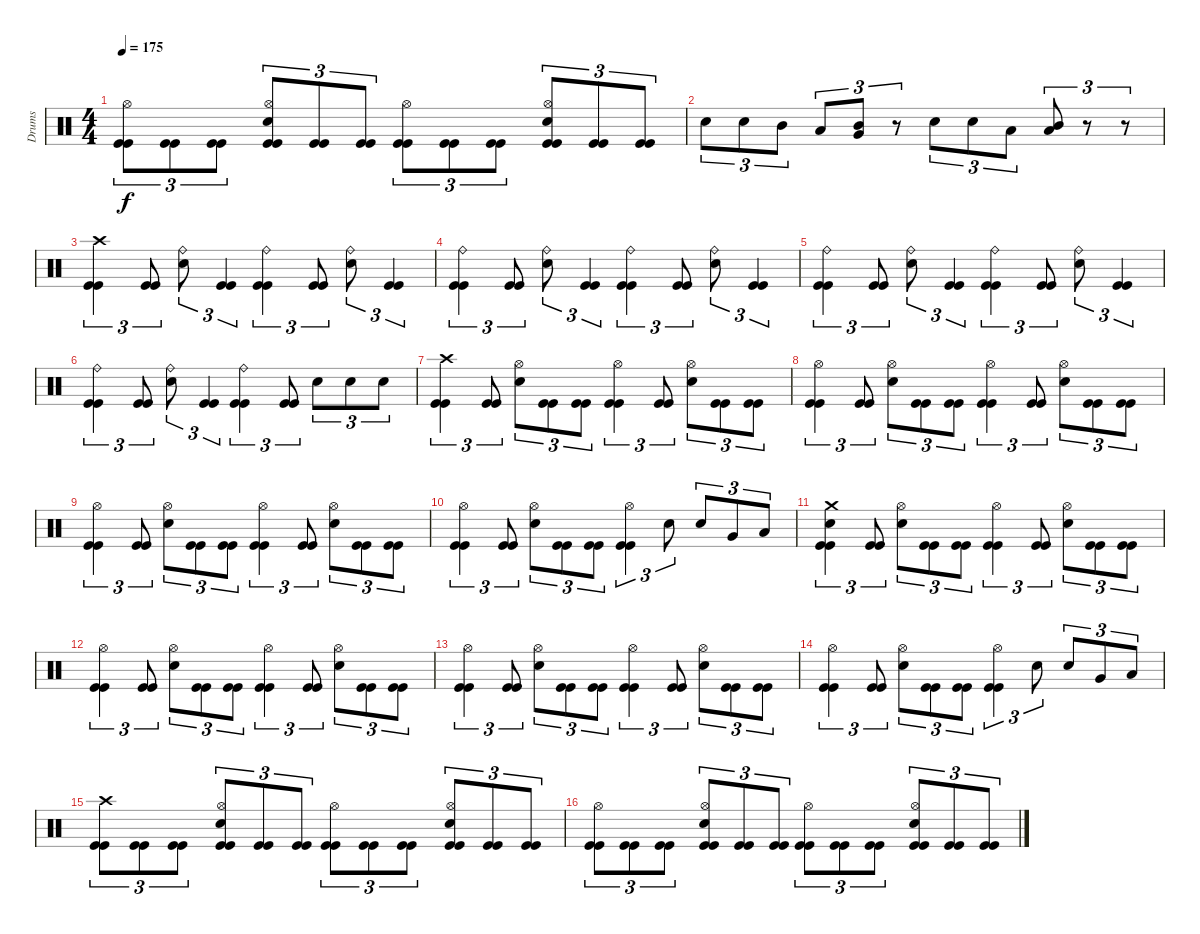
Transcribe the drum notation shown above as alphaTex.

\track ("Drums" "Drums") {instrument percussion}
\staff {score}
\articulation defaults
\ts (4 4)
\tempo 175
\clef neutral
\ks c
("Kick (hit)" "Kick (hit)" "Hi-Hat (open)").8{tu (3 2) dy f} ("Kick (hit)" "Kick (hit)").8{tu (3 2)} ("Kick (hit)" "Kick (hit)").8{tu (3 2)} ("Kick (hit)" "Kick (hit)" "Snare (hit) 2" "Hi-Hat (open)").8{tu (3 2)} ("Kick (hit)" "Kick (hit)").8{tu (3 2)} ("Kick (hit)" "Kick (hit)").8{tu (3 2)} ("Kick (hit)" "Kick (hit)" "Hi-Hat (open)").8{tu (3 2)} ("Kick (hit)" "Kick (hit)").8{tu (3 2)} ("Kick (hit)" "Kick (hit)").8{tu (3 2)} ("Kick (hit)" "Kick (hit)" "Snare (hit) 2" "Hi-Hat (open)").8{tu (3 2)} ("Kick (hit)" "Kick (hit)").8{tu (3 2)} ("Kick (hit)" "Kick (hit)").8{tu (3 2)} |
"Snare (hit) 2".8{tu (3 2)} "Snare (hit) 2".8{tu (3 2)} "Mid Tom (hit)".8{tu (3 2)} "Low Tom (hit)".8{tu (3 2)} ("Very Low Tom (hit)" "Mid Tom (hit)").8{tu (3 2)} r.8{tu (3 2)} "Snare (hit) 2".8{tu (3 2)} "Snare (hit) 2".8{tu (3 2)} "Low Tom (hit)".8{tu (3 2)} ("Low Floor Tom (hit)" "Mid Tom (hit)").8{tu (3 2)} r.8{tu (3 2)} r.8{tu (3 2)} |
("Kick (hit)" "Kick (hit)" "Crash high (hit)").4{tu (3 2)} ("Kick (hit)" "Kick (hit)").8{tu (3 2)} ("Snare (hit) 2" "Ride (bell)").8{tu (3 2)} ("Kick (hit)" "Kick (hit)").4{tu (3 2)} ("Kick (hit)" "Kick (hit)" "Ride (bell)").4{tu (3 2)} ("Kick (hit)" "Kick (hit)").8{tu (3 2)} ("Snare (hit) 2" "Ride (bell)").8{tu (3 2)} ("Kick (hit)" "Kick (hit)").4{tu (3 2)} |
("Kick (hit)" "Kick (hit)" "Ride (bell)").4{tu (3 2)} ("Kick (hit)" "Kick (hit)").8{tu (3 2)} ("Snare (hit) 2" "Ride (bell)").8{tu (3 2)} ("Kick (hit)" "Kick (hit)").4{tu (3 2)} ("Kick (hit)" "Kick (hit)" "Ride (bell)").4{tu (3 2)} ("Kick (hit)" "Kick (hit)").8{tu (3 2)} ("Snare (hit) 2" "Ride (bell)").8{tu (3 2)} ("Kick (hit)" "Kick (hit)").4{tu (3 2)} |
("Kick (hit)" "Kick (hit)" "Ride (bell)").4{tu (3 2)} ("Kick (hit)" "Kick (hit)").8{tu (3 2)} ("Snare (hit) 2" "Ride (bell)").8{tu (3 2)} ("Kick (hit)" "Kick (hit)").4{tu (3 2)} ("Kick (hit)" "Kick (hit)" "Ride (bell)").4{tu (3 2)} ("Kick (hit)" "Kick (hit)").8{tu (3 2)} ("Snare (hit) 2" "Ride (bell)").8{tu (3 2)} ("Kick (hit)" "Kick (hit)").4{tu (3 2)} |
("Kick (hit)" "Kick (hit)" "Ride (bell)").4{tu (3 2)} ("Kick (hit)" "Kick (hit)").8{tu (3 2)} ("Snare (hit) 2" "Ride (bell)").8{tu (3 2)} ("Kick (hit)" "Kick (hit)").4{tu (3 2)} ("Kick (hit)" "Kick (hit)" "Ride (bell)").4{tu (3 2)} ("Kick (hit)" "Kick (hit)").8{tu (3 2)} "Snare (hit) 2".8{tu (3 2)} "Snare (hit) 2".8{tu (3 2)} "Snare (hit) 2".8{tu (3 2)} |
("Kick (hit)" "Kick (hit)" "Crash high (hit)").4{tu (3 2)} ("Kick (hit)" "Kick (hit)").8{tu (3 2)} ("Snare (hit) 2" "Hi-Hat (open)").8{tu (3 2)} ("Kick (hit)" "Kick (hit)").8{tu (3 2)} ("Kick (hit)" "Kick (hit)").8{tu (3 2)} ("Kick (hit)" "Kick (hit)" "Hi-Hat (open)").4{tu (3 2)} ("Kick (hit)" "Kick (hit)").8{tu (3 2)} ("Snare (hit) 2" "Hi-Hat (open)").8{tu (3 2)} ("Kick (hit)" "Kick (hit)").8{tu (3 2)} ("Kick (hit)" "Kick (hit)").8{tu (3 2)} |
("Kick (hit)" "Kick (hit)" "Hi-Hat (open)").4{tu (3 2)} ("Kick (hit)" "Kick (hit)").8{tu (3 2)} ("Snare (hit) 2" "Hi-Hat (open)").8{tu (3 2)} ("Kick (hit)" "Kick (hit)").8{tu (3 2)} ("Kick (hit)" "Kick (hit)").8{tu (3 2)} ("Kick (hit)" "Kick (hit)" "Hi-Hat (open)").4{tu (3 2)} ("Kick (hit)" "Kick (hit)").8{tu (3 2)} ("Snare (hit) 2" "Hi-Hat (open)").8{tu (3 2)} ("Kick (hit)" "Kick (hit)").8{tu (3 2)} ("Kick (hit)" "Kick (hit)").8{tu (3 2)} |
("Kick (hit)" "Kick (hit)" "Hi-Hat (open)").4{tu (3 2)} ("Kick (hit)" "Kick (hit)").8{tu (3 2)} ("Snare (hit) 2" "Hi-Hat (open)").8{tu (3 2)} ("Kick (hit)" "Kick (hit)").8{tu (3 2)} ("Kick (hit)" "Kick (hit)").8{tu (3 2)} ("Kick (hit)" "Kick (hit)" "Hi-Hat (open)").4{tu (3 2)} ("Kick (hit)" "Kick (hit)").8{tu (3 2)} ("Snare (hit) 2" "Hi-Hat (open)").8{tu (3 2)} ("Kick (hit)" "Kick (hit)").8{tu (3 2)} ("Kick (hit)" "Kick (hit)").8{tu (3 2)} |
("Kick (hit)" "Kick (hit)" "Hi-Hat (open)").4{tu (3 2)} ("Kick (hit)" "Kick (hit)").8{tu (3 2)} ("Snare (hit) 2" "Hi-Hat (open)").8{tu (3 2)} ("Kick (hit)" "Kick (hit)").8{tu (3 2)} ("Kick (hit)" "Kick (hit)").8{tu (3 2)} ("Kick (hit)" "Kick (hit)" "Hi-Hat (open)").4{tu (3 2)} "Snare (hit) 2".8{tu (3 2)} "Snare (hit) 2".8{tu (3 2)} "Very Low Tom (hit)".8{tu (3 2)} "Low Floor Tom (hit)".8{tu (3 2)} |
("Kick (hit)" "Kick (hit)" "Crash medium (hit)" "Snare (hit) 2").4{tu (3 2)} ("Kick (hit)" "Kick (hit)").8{tu (3 2)} ("Snare (hit) 2" "Hi-Hat (open)").8{tu (3 2)} ("Kick (hit)" "Kick (hit)").8{tu (3 2)} ("Kick (hit)" "Kick (hit)").8{tu (3 2)} ("Kick (hit)" "Kick (hit)" "Hi-Hat (open)").4{tu (3 2)} ("Kick (hit)" "Kick (hit)").8{tu (3 2)} ("Snare (hit) 2" "Hi-Hat (open)").8{tu (3 2)} ("Kick (hit)" "Kick (hit)").8{tu (3 2)} ("Kick (hit)" "Kick (hit)").8{tu (3 2)} |
("Kick (hit)" "Kick (hit)" "Hi-Hat (open)").4{tu (3 2)} ("Kick (hit)" "Kick (hit)").8{tu (3 2)} ("Snare (hit) 2" "Hi-Hat (open)").8{tu (3 2)} ("Kick (hit)" "Kick (hit)").8{tu (3 2)} ("Kick (hit)" "Kick (hit)").8{tu (3 2)} ("Kick (hit)" "Kick (hit)" "Hi-Hat (open)").4{tu (3 2)} ("Kick (hit)" "Kick (hit)").8{tu (3 2)} ("Snare (hit) 2" "Hi-Hat (open)").8{tu (3 2)} ("Kick (hit)" "Kick (hit)").8{tu (3 2)} ("Kick (hit)" "Kick (hit)").8{tu (3 2)} |
("Kick (hit)" "Kick (hit)" "Hi-Hat (open)").4{tu (3 2)} ("Kick (hit)" "Kick (hit)").8{tu (3 2)} ("Snare (hit) 2" "Hi-Hat (open)").8{tu (3 2)} ("Kick (hit)" "Kick (hit)").8{tu (3 2)} ("Kick (hit)" "Kick (hit)").8{tu (3 2)} ("Kick (hit)" "Kick (hit)" "Hi-Hat (open)").4{tu (3 2)} ("Kick (hit)" "Kick (hit)").8{tu (3 2)} ("Snare (hit) 2" "Hi-Hat (open)").8{tu (3 2)} ("Kick (hit)" "Kick (hit)").8{tu (3 2)} ("Kick (hit)" "Kick (hit)").8{tu (3 2)} |
("Kick (hit)" "Kick (hit)" "Hi-Hat (open)").4{tu (3 2)} ("Kick (hit)" "Kick (hit)").8{tu (3 2)} ("Snare (hit) 2" "Hi-Hat (open)").8{tu (3 2)} ("Kick (hit)" "Kick (hit)").8{tu (3 2)} ("Kick (hit)" "Kick (hit)").8{tu (3 2)} ("Kick (hit)" "Kick (hit)" "Hi-Hat (open)").4{tu (3 2)} "Snare (hit) 2".8{tu (3 2)} "Snare (hit) 2".8{tu (3 2)} "Very Low Tom (hit)".8{tu (3 2)} "Low Floor Tom (hit)".8{tu (3 2)} |
("Kick (hit)" "Kick (hit)" "Crash high (hit)").8{tu (3 2)} ("Kick (hit)" "Kick (hit)").8{tu (3 2)} ("Kick (hit)" "Kick (hit)").8{tu (3 2)} ("Kick (hit)" "Kick (hit)" "Snare (hit) 2" "Hi-Hat (open)").8{tu (3 2)} ("Kick (hit)" "Kick (hit)").8{tu (3 2)} ("Kick (hit)" "Kick (hit)").8{tu (3 2)} ("Kick (hit)" "Kick (hit)" "Hi-Hat (open)").8{tu (3 2)} ("Kick (hit)" "Kick (hit)").8{tu (3 2)} ("Kick (hit)" "Kick (hit)").8{tu (3 2)} ("Kick (hit)" "Kick (hit)" "Snare (hit) 2" "Hi-Hat (open)").8{tu (3 2)} ("Kick (hit)" "Kick (hit)").8{tu (3 2)} ("Kick (hit)" "Kick (hit)").8{tu (3 2)} |
("Kick (hit)" "Kick (hit)" "Hi-Hat (open)").8{tu (3 2)} ("Kick (hit)" "Kick (hit)").8{tu (3 2)} ("Kick (hit)" "Kick (hit)").8{tu (3 2)} ("Kick (hit)" "Kick (hit)" "Snare (hit) 2" "Hi-Hat (open)").8{tu (3 2)} ("Kick (hit)" "Kick (hit)").8{tu (3 2)} ("Kick (hit)" "Kick (hit)").8{tu (3 2)} ("Kick (hit)" "Kick (hit)" "Hi-Hat (open)").8{tu (3 2)} ("Kick (hit)" "Kick (hit)").8{tu (3 2)} ("Kick (hit)" "Kick (hit)").8{tu (3 2)} ("Kick (hit)" "Kick (hit)" "Snare (hit) 2" "Hi-Hat (open)").8{tu (3 2)} ("Kick (hit)" "Kick (hit)").8{tu (3 2)} ("Kick (hit)" "Kick (hit)").8{tu (3 2)}
